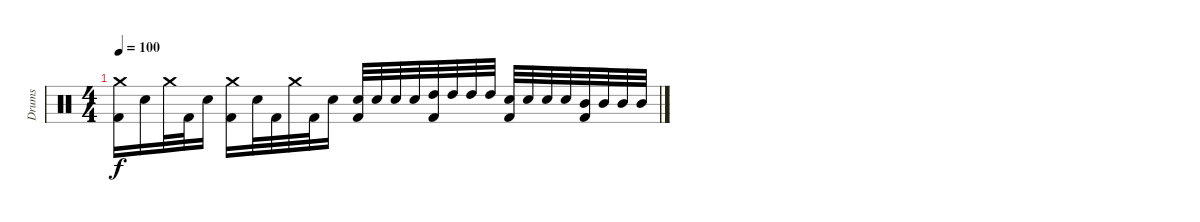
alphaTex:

\track ("Drums" "Drums") {instrument percussion}
\staff {score}
\articulation defaults
\ts (4 4)
\tempo 100
\clef neutral
\ks c
("Crash medium (hit)" "Kick (hit) 2").16{dy f} "Electric Snare (hit)".16 "Crash medium (hit)".32 "Kick (hit) 2".32 "Electric Snare (hit)".16 ("Crash medium (hit)" "Kick (hit) 2").16 "Electric Snare (hit)".32 "Kick (hit) 2".32 "Crash medium (hit)".32 "Kick (hit) 2".32 "Electric Snare (hit)".16 ("Electric Snare (hit)" "Kick (hit) 2").32 "Electric Snare (hit)".32 "Electric Snare (hit)".32 "Electric Snare (hit)".32 ("High Tom (hit)" "Kick (hit) 2").32 "High Tom (hit)".32 "High Tom (hit)".32 "High Tom (hit)".32 ("Electric Snare (hit)" "Kick (hit) 2").32 "Electric Snare (hit)".32 "Electric Snare (hit)".32 "Electric Snare (hit)".32 ("Mid Tom (hit)" "Kick (hit) 2").32 "Mid Tom (hit)".32 "Mid Tom (hit)".32 "Mid Tom (hit)".32
